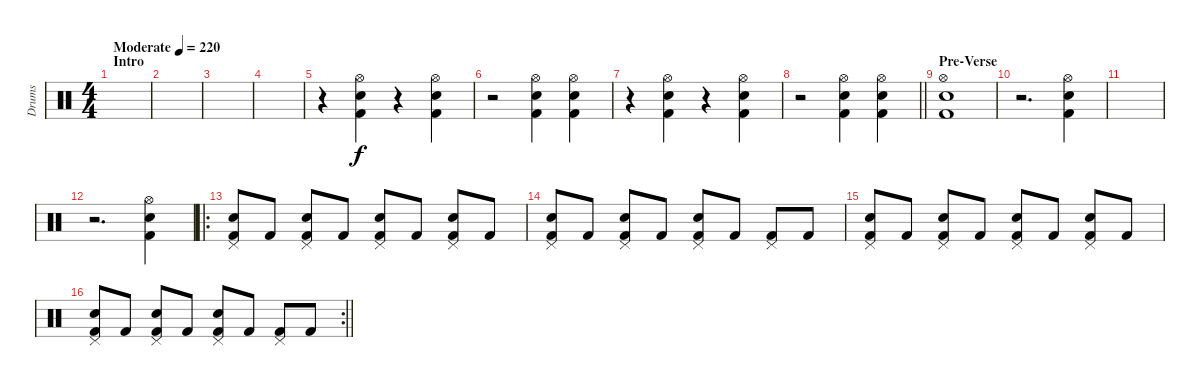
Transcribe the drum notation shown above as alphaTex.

\track ("Drums" "Drums") {instrument percussion}
\staff {score}
\articulation defaults
\ts (4 4)
\section ("" "Intro")
\tempo (220 "Moderate")
\clef neutral
\ks c
|
|
|
|
r.4 ("Hi-Hat (open)" "Snare (hit) 2" "Kick (hit) 2").4 r.4 ("Hi-Hat (open)" "Snare (hit) 2" "Kick (hit) 2").4 |
r.2 ("Hi-Hat (open)" "Snare (hit) 2" "Kick (hit) 2").4 ("Hi-Hat (open)" "Snare (hit) 2" "Kick (hit) 2").4 |
r.4 ("Hi-Hat (open)" "Snare (hit) 2" "Kick (hit) 2").4 r.4 ("Hi-Hat (open)" "Snare (hit) 2" "Kick (hit) 2").4 |
\barLineRight lightlight
r.2 ("Hi-Hat (open)" "Snare (hit) 2" "Kick (hit) 2").4 ("Hi-Hat (open)" "Snare (hit) 2" "Kick (hit) 2").4 |
\section ("" "Pre-Verse")
("Hi-Hat (open)" "Snare (hit) 2" "Kick (hit) 2").1 |
r.2{d} ("Hi-Hat (open)" "Snare (hit) 2" "Kick (hit) 2").4 |
|
r.2{d} ("Hi-Hat (open)" "Snare (hit) 2" "Kick (hit) 2").4 |
\ro
("Pedal Hi-Hat (hit)" "Snare (hit) 2" "Kick (hit) 2").8 "Kick (hit) 2".8 ("Pedal Hi-Hat (hit)" "Snare (hit) 2" "Kick (hit) 2").8 "Kick (hit) 2".8 ("Pedal Hi-Hat (hit)" "Snare (hit) 2" "Kick (hit) 2").8 "Kick (hit) 2".8 ("Pedal Hi-Hat (hit)" "Snare (hit) 2" "Kick (hit) 2").8 "Kick (hit) 2".8 |
("Pedal Hi-Hat (hit)" "Snare (hit) 2" "Kick (hit) 2").8 "Kick (hit) 2".8 ("Pedal Hi-Hat (hit)" "Snare (hit) 2" "Kick (hit) 2").8 "Kick (hit) 2".8 ("Pedal Hi-Hat (hit)" "Snare (hit) 2" "Kick (hit) 2").8 "Kick (hit) 2".8 ("Pedal Hi-Hat (hit)" "Kick (hit) 2").8 "Kick (hit) 2".8 |
("Pedal Hi-Hat (hit)" "Snare (hit) 2" "Kick (hit) 2").8 "Kick (hit) 2".8 ("Pedal Hi-Hat (hit)" "Snare (hit) 2" "Kick (hit) 2").8 "Kick (hit) 2".8 ("Pedal Hi-Hat (hit)" "Snare (hit) 2" "Kick (hit) 2").8 "Kick (hit) 2".8 ("Pedal Hi-Hat (hit)" "Snare (hit) 2" "Kick (hit) 2").8 "Kick (hit) 2".8 |
\rc 2
\barLineRight lightlight
("Pedal Hi-Hat (hit)" "Snare (hit) 2" "Kick (hit) 2").8 "Kick (hit) 2".8 ("Pedal Hi-Hat (hit)" "Snare (hit) 2" "Kick (hit) 2").8 "Kick (hit) 2".8 ("Pedal Hi-Hat (hit)" "Snare (hit) 2" "Kick (hit) 2").8 "Kick (hit) 2".8 ("Pedal Hi-Hat (hit)" "Kick (hit) 2").8 "Kick (hit) 2".8
